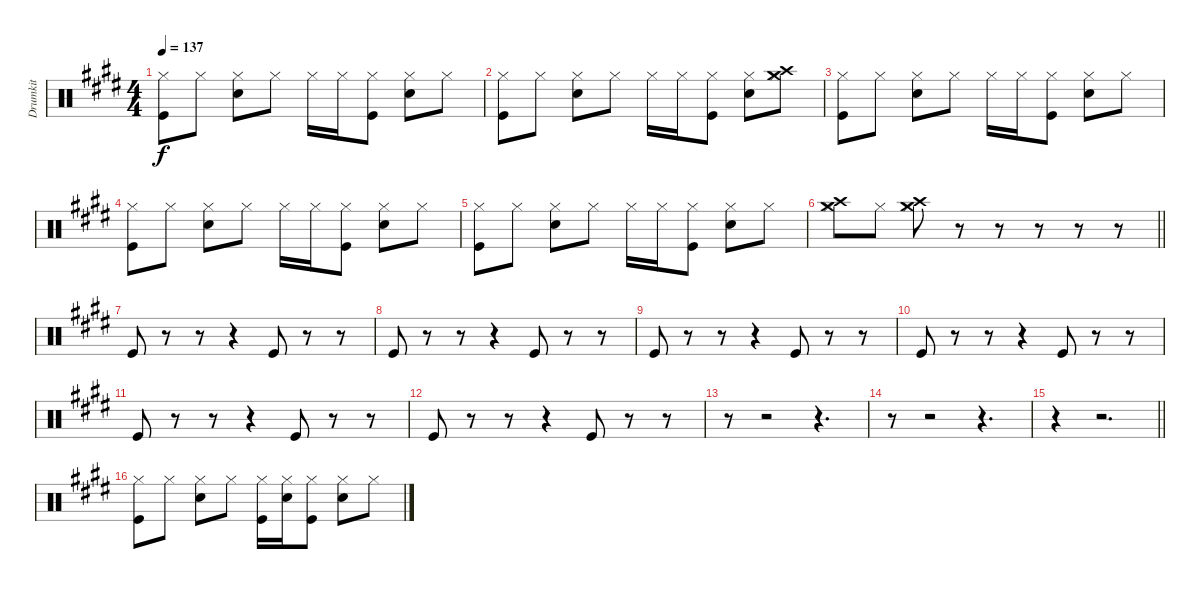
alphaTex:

\track ("Drumkit" "Drumkit") {instrument percussion}
\staff {score}
\articulation defaults
\ts (4 4)
\tempo 137
\clef neutral
\ks e
("Hi-Hat (closed)" "Kick (hit)").8{dy f} "Hi-Hat (closed)".8 ("Hi-Hat (closed)" "Snare (hit) 2").8 "Hi-Hat (closed)".8 "Hi-Hat (closed)".16 "Hi-Hat (closed)".16 ("Hi-Hat (closed)" "Kick (hit)").8 ("Hi-Hat (closed)" "Snare (hit) 2").8 "Hi-Hat (closed)".8 |
("Hi-Hat (closed)" "Kick (hit)").8 "Hi-Hat (closed)".8 ("Hi-Hat (closed)" "Snare (hit) 2").8 "Hi-Hat (closed)".8 "Hi-Hat (closed)".16 "Hi-Hat (closed)".16 ("Hi-Hat (closed)" "Kick (hit)").8 ("Hi-Hat (closed)" "Snare (hit) 2").8 ("Hi-Hat (closed)" "Crash high (hit)" "Crash medium (hit)").8 |
("Hi-Hat (closed)" "Kick (hit)").8 "Hi-Hat (closed)".8 ("Hi-Hat (closed)" "Snare (hit) 2").8 "Hi-Hat (closed)".8 "Hi-Hat (closed)".16 "Hi-Hat (closed)".16 ("Hi-Hat (closed)" "Kick (hit)").8 ("Hi-Hat (closed)" "Snare (hit) 2").8 "Hi-Hat (closed)".8 |
("Hi-Hat (closed)" "Kick (hit)").8 "Hi-Hat (closed)".8 ("Hi-Hat (closed)" "Snare (hit) 2").8 "Hi-Hat (closed)".8 "Hi-Hat (closed)".16 "Hi-Hat (closed)".16 ("Hi-Hat (closed)" "Kick (hit)").8 ("Hi-Hat (closed)" "Snare (hit) 2").8 "Hi-Hat (closed)".8 |
("Hi-Hat (closed)" "Kick (hit)").8 "Hi-Hat (closed)".8 ("Hi-Hat (closed)" "Snare (hit) 2").8 "Hi-Hat (closed)".8 "Hi-Hat (closed)".16 "Hi-Hat (closed)".16 ("Hi-Hat (closed)" "Kick (hit)").8 ("Hi-Hat (closed)" "Snare (hit) 2").8 "Hi-Hat (closed)".8 |
\barLineRight lightlight
("Hi-Hat (closed)" "Crash high (hit)" "Crash medium (hit)").8 "Hi-Hat (closed)".8 ("Hi-Hat (closed)" "Crash high (hit)" "Crash medium (hit)").8 r.8 r.8 r.8 r.8 r.8 |
"Kick (hit)".8 r.8 r.8 r.4 "Kick (hit)".8 r.8 r.8 |
"Kick (hit)".8 r.8 r.8 r.4 "Kick (hit)".8 r.8 r.8 |
"Kick (hit)".8 r.8 r.8 r.4 "Kick (hit)".8 r.8 r.8 |
"Kick (hit)".8 r.8 r.8 r.4 "Kick (hit)".8 r.8 r.8 |
"Kick (hit)".8 r.8 r.8 r.4 "Kick (hit)".8 r.8 r.8 |
"Kick (hit)".8 r.8 r.8 r.4 "Kick (hit)".8 r.8 r.8 |
r.8 r.2 r.4{d} |
r.8 r.2 r.4{d} |
\barLineRight lightlight
r.4 r.2{d} |
("Hi-Hat (closed)" "Kick (hit)").8 "Hi-Hat (closed)".8 ("Hi-Hat (closed)" "Snare (hit) 2").8 "Hi-Hat (closed)".8 ("Hi-Hat (closed)" "Kick (hit)").16 ("Hi-Hat (closed)" "Snare (hit) 2").16 ("Hi-Hat (closed)" "Kick (hit)").8 ("Hi-Hat (closed)" "Snare (hit) 2").8 "Hi-Hat (closed)".8
